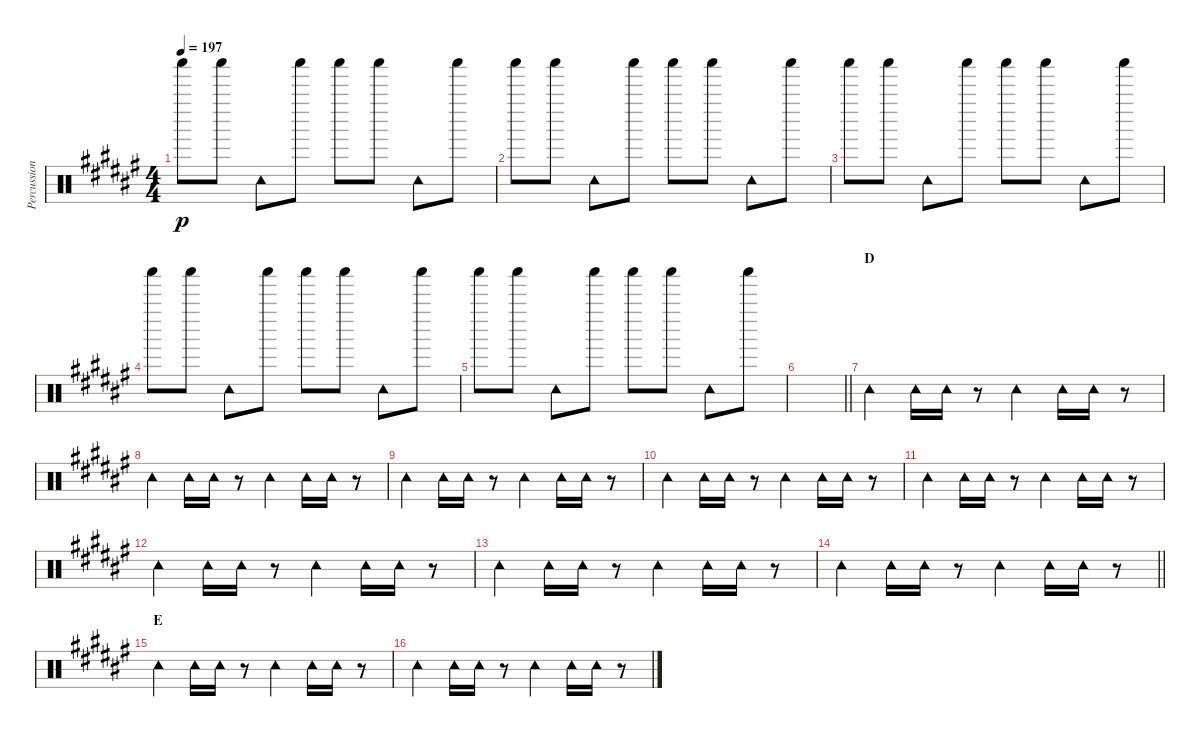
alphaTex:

\track ("Percussion (Tainaka Ritsu)" "Percussion") {instrument percussion}
\staff {score}
\articulation defaults
\ts (4 4)
\tempo 197
\clef neutral
\ks f# "Shaker (hit)".8{dy p} "Shaker (hit)".8 "Tambourine (hit)".8 "Shaker (hit)".8 "Shaker (hit)".8 "Shaker (hit)".8 "Tambourine (hit)".8 "Shaker (hit)".8
|
"Shaker (hit)".8 "Shaker (hit)".8 "Tambourine (hit)".8 "Shaker (hit)".8 "Shaker (hit)".8 "Shaker (hit)".8 "Tambourine (hit)".8 "Shaker (hit)".8 |
"Shaker (hit)".8 "Shaker (hit)".8 "Tambourine (hit)".8 "Shaker (hit)".8 "Shaker (hit)".8 "Shaker (hit)".8 "Tambourine (hit)".8 "Shaker (hit)".8 |
"Shaker (hit)".8 "Shaker (hit)".8 "Tambourine (hit)".8 "Shaker (hit)".8 "Shaker (hit)".8 "Shaker (hit)".8 "Tambourine (hit)".8 "Shaker (hit)".8 |
"Shaker (hit)".8 "Shaker (hit)".8 "Tambourine (hit)".8 "Shaker (hit)".8 "Shaker (hit)".8 "Shaker (hit)".8 "Tambourine (hit)".8 "Shaker (hit)".8 |
\barLineRight lightlight
|
\section ("" "D")
"Tambourine (hit)".4 "Tambourine (hit)".16 "Tambourine (hit)".16 r.8 "Tambourine (hit)".4 "Tambourine (hit)".16 "Tambourine (hit)".16 r.8 |
"Tambourine (hit)".4 "Tambourine (hit)".16 "Tambourine (hit)".16 r.8 "Tambourine (hit)".4 "Tambourine (hit)".16 "Tambourine (hit)".16 r.8 |
"Tambourine (hit)".4 "Tambourine (hit)".16 "Tambourine (hit)".16 r.8 "Tambourine (hit)".4 "Tambourine (hit)".16 "Tambourine (hit)".16 r.8 |
"Tambourine (hit)".4 "Tambourine (hit)".16 "Tambourine (hit)".16 r.8 "Tambourine (hit)".4 "Tambourine (hit)".16 "Tambourine (hit)".16 r.8 |
"Tambourine (hit)".4 "Tambourine (hit)".16 "Tambourine (hit)".16 r.8 "Tambourine (hit)".4 "Tambourine (hit)".16 "Tambourine (hit)".16 r.8 |
"Tambourine (hit)".4 "Tambourine (hit)".16 "Tambourine (hit)".16 r.8 "Tambourine (hit)".4 "Tambourine (hit)".16 "Tambourine (hit)".16 r.8 |
"Tambourine (hit)".4 "Tambourine (hit)".16 "Tambourine (hit)".16 r.8 "Tambourine (hit)".4 "Tambourine (hit)".16 "Tambourine (hit)".16 r.8 |
\barLineRight lightlight "Tambourine (hit)".4 "Tambourine (hit)".16 "Tambourine (hit)".16
r.8 "Tambourine (hit)".4 "Tambourine (hit)".16 "Tambourine (hit)".16 r.8 |
\section ("" "E")
"Tambourine (hit)".4 "Tambourine (hit)".16 "Tambourine (hit)".16 r.8 "Tambourine (hit)".4 "Tambourine (hit)".16 "Tambourine (hit)".16 r.8 |
"Tambourine (hit)".4 "Tambourine (hit)".16 "Tambourine (hit)".16 r.8 "Tambourine (hit)".4 "Tambourine (hit)".16 "Tambourine (hit)".16 r.8
